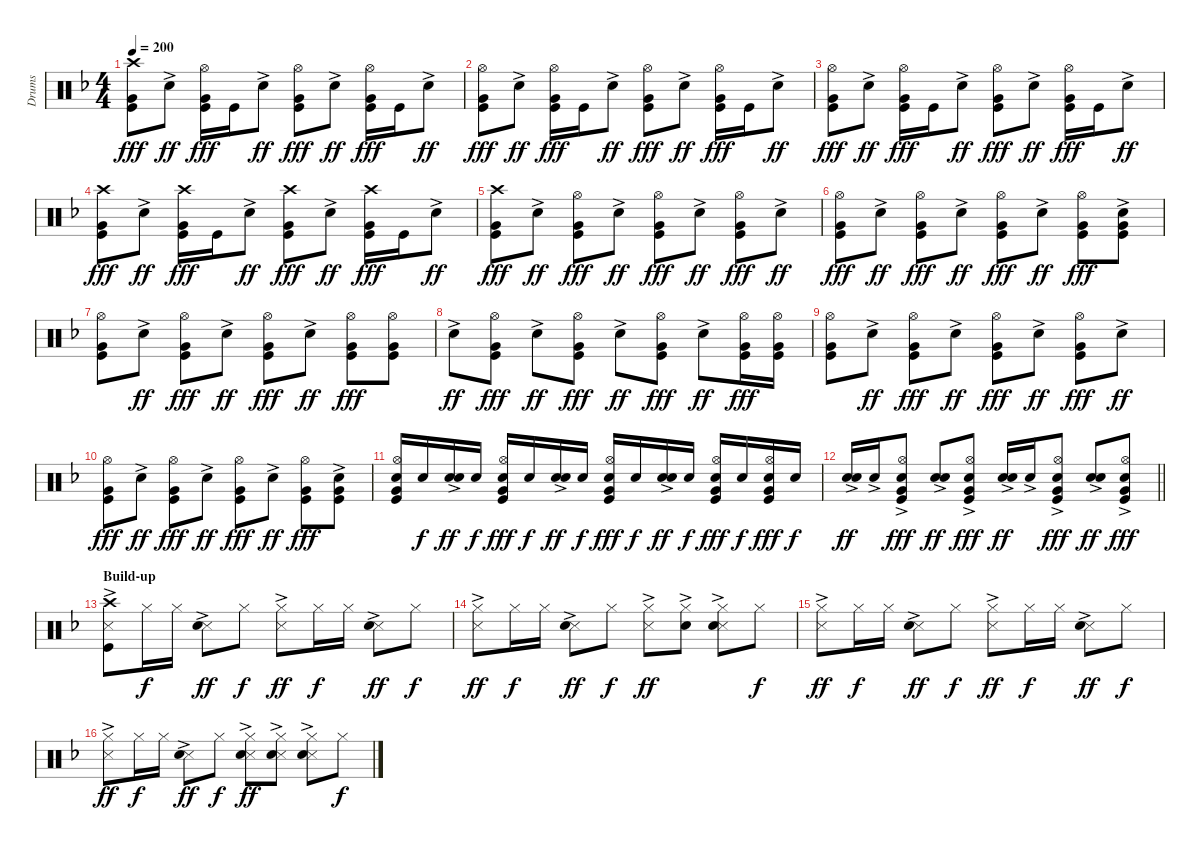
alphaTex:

\track ("Drums" "Drums") {instrument percussion bank 25}
\staff {score}
\articulation defaults
\ts (4 4)
\tempo 200
\clef neutral
\ks dminor
("Crash high (hit)" "Very Low Tom (hit)" "Kick (hit)").8{dy fff} "Snare (hit) 2"{ac}.8{dy ff} ("Hi-Hat (open)" "Very Low Tom (hit)" "Kick (hit)").16{dy fff} "Kick (hit)".16 "Snare (hit) 2"{ac}.8{dy ff} ("Hi-Hat (open)" "Very Low Tom (hit)" "Kick (hit)").8{dy fff} "Snare (hit) 2"{ac}.8{dy ff} ("Hi-Hat (open)" "Very Low Tom (hit)" "Kick (hit)").16{dy fff} "Kick (hit)".16 "Snare (hit) 2"{ac}.8{dy ff} |
("Hi-Hat (open)" "Very Low Tom (hit)" "Kick (hit)").8{dy fff} "Snare (hit) 2"{ac}.8{dy ff} ("Hi-Hat (open)" "Very Low Tom (hit)" "Kick (hit)").16{dy fff} "Kick (hit)".16 "Snare (hit) 2"{ac}.8{dy ff} ("Hi-Hat (open)" "Very Low Tom (hit)" "Kick (hit)").8{dy fff} "Snare (hit) 2"{ac}.8{dy ff} ("Hi-Hat (open)" "Very Low Tom (hit)" "Kick (hit)").16{dy fff} "Kick (hit)".16 "Snare (hit) 2"{ac}.8{dy ff} |
("Hi-Hat (open)" "Very Low Tom (hit)" "Kick (hit)").8{dy fff} "Snare (hit) 2"{ac}.8{dy ff} ("Hi-Hat (open)" "Very Low Tom (hit)" "Kick (hit)").16{dy fff} "Kick (hit)".16 "Snare (hit) 2"{ac}.8{dy ff} ("Hi-Hat (open)" "Very Low Tom (hit)" "Kick (hit)").8{dy fff} "Snare (hit) 2"{ac}.8{dy ff} ("Hi-Hat (open)" "Very Low Tom (hit)" "Kick (hit)").16{dy fff} "Kick (hit)".16 "Snare (hit) 2"{ac}.8{dy ff} |
("Crash high (hit)" "Very Low Tom (hit)" "Kick (hit)").8{dy fff} "Snare (hit) 2"{ac}.8{dy ff} ("Crash high (hit)" "Very Low Tom (hit)" "Kick (hit)").16{dy fff} "Kick (hit)".16 "Snare (hit) 2"{ac}.8{dy ff} ("Crash high (hit)" "Very Low Tom (hit)" "Kick (hit)").8{dy fff} "Snare (hit) 2"{ac}.8{dy ff} ("Crash high (hit)" "Very Low Tom (hit)" "Kick (hit)").16{dy fff} "Kick (hit)".16 "Snare (hit) 2"{ac}.8{dy ff} |
("Crash high (hit)" "Very Low Tom (hit)" "Kick (hit)").8{dy fff} "Snare (hit) 2"{ac}.8{dy ff} ("Hi-Hat (open)" "Very Low Tom (hit)" "Kick (hit)").8{dy fff} "Snare (hit) 2"{ac}.8{dy ff} ("Hi-Hat (open)" "Very Low Tom (hit)" "Kick (hit)").8{dy fff} "Snare (hit) 2"{ac}.8{dy ff} ("Hi-Hat (open)" "Very Low Tom (hit)" "Kick (hit)").8{dy fff} "Snare (hit) 2"{ac}.8{dy ff} |
("Hi-Hat (open)" "Very Low Tom (hit)" "Kick (hit)").8{dy fff} "Snare (hit) 2"{ac}.8{dy ff} ("Hi-Hat (open)" "Very Low Tom (hit)" "Kick (hit)").8{dy fff} "Snare (hit) 2"{ac}.8{dy ff} ("Hi-Hat (open)" "Very Low Tom (hit)" "Kick (hit)").8{dy fff} "Snare (hit) 2"{ac}.8{dy ff} ("Hi-Hat (open)" "Very Low Tom (hit)" "Kick (hit)").8{dy fff} ("Snare (hit) 2"{ac} "Very Low Tom (hit)" "Kick (hit)").8 |
("Hi-Hat (open)" "Very Low Tom (hit)" "Kick (hit)").8 "Snare (hit) 2"{ac}.8{dy ff} ("Hi-Hat (open)" "Very Low Tom (hit)" "Kick (hit)").8{dy fff} "Snare (hit) 2"{ac}.8{dy ff} ("Hi-Hat (open)" "Very Low Tom (hit)" "Kick (hit)").8{dy fff} "Snare (hit) 2"{ac}.8{dy ff} ("Hi-Hat (open)" "Very Low Tom (hit)" "Kick (hit)").8{dy fff} ("Hi-Hat (open)" "Very Low Tom (hit)" "Kick (hit)").8 |
"Snare (hit) 2"{ac}.8{dy ff} ("Hi-Hat (open)" "Very Low Tom (hit)" "Kick (hit)").8{dy fff} "Snare (hit) 2"{ac}.8{dy ff} ("Hi-Hat (open)" "Very Low Tom (hit)" "Kick (hit)").8{dy fff} "Snare (hit) 2"{ac}.8{dy ff} ("Hi-Hat (open)" "Very Low Tom (hit)" "Kick (hit)").8{dy fff} "Snare (hit) 2"{ac}.8{dy ff} ("Hi-Hat (open)" "Very Low Tom (hit)" "Kick (hit)").16{dy fff} ("Hi-Hat (open)" "Very Low Tom (hit)" "Kick (hit)").16 |
("Hi-Hat (open)" "Very Low Tom (hit)" "Kick (hit)").8 "Snare (hit) 2"{ac}.8{dy ff} ("Hi-Hat (open)" "Very Low Tom (hit)" "Kick (hit)").8{dy fff} "Snare (hit) 2"{ac}.8{dy ff} ("Hi-Hat (open)" "Very Low Tom (hit)" "Kick (hit)").8{dy fff} "Snare (hit) 2"{ac}.8{dy ff} ("Hi-Hat (open)" "Very Low Tom (hit)" "Kick (hit)").8{dy fff} "Snare (hit) 2"{ac}.8{dy ff} |
("Hi-Hat (open)" "Very Low Tom (hit)" "Kick (hit)").8{dy fff} "Snare (hit) 2"{ac}.8{dy ff} ("Hi-Hat (open)" "Very Low Tom (hit)" "Kick (hit)").8{dy fff} "Snare (hit) 2"{ac}.8{dy ff} ("Hi-Hat (open)" "Very Low Tom (hit)" "Kick (hit)").8{dy fff} "Snare (hit) 2"{ac}.8{dy ff} ("Hi-Hat (open)" "Very Low Tom (hit)" "Kick (hit)").8{dy fff} ("Snare (hit) 2"{ac} "Very Low Tom (hit)" "Kick (hit)").8 |
("Hi-Hat (open)" "Electric Snare (hit)" "Very Low Tom (hit)" "Kick (hit)").16 "Electric Snare (hit)".16{dy f} ("Electric Snare (hit)" "Snare (hit) 2"{ac}).16{dy ff} "Electric Snare (hit)".16{dy f} ("Hi-Hat (open)" "Electric Snare (hit)" "Very Low Tom (hit)" "Kick (hit)").16{dy fff} "Electric Snare (hit)".16{dy f} ("Electric Snare (hit)" "Snare (hit) 2"{ac}).16{dy ff} "Electric Snare (hit)".16{dy f} ("Hi-Hat (open)" "Electric Snare (hit)" "Very Low Tom (hit)" "Kick (hit)").16{dy fff} "Electric Snare (hit)".16{dy f} ("Electric Snare (hit)" "Snare (hit) 2"{ac}).16{dy ff} "Electric Snare (hit)".16{dy f} ("Hi-Hat (open)" "Electric Snare (hit)" "Very Low Tom (hit)" "Kick (hit)").16{dy fff} "Electric Snare (hit)".16{dy f} ("Hi-Hat (open)" "Electric Snare (hit)" "Very Low Tom (hit)" "Kick (hit)").16{dy fff} "Electric Snare (hit)".16{dy f} |
\barLineRight lightlight
("Electric Snare (hit)"{ac} "Snare (hit) 2"{ac}).16{dy ff} "Electric Snare (hit)"{ac}.16 ("Hi-Hat (open)" "Electric Snare (hit)"{ac} "Very Low Tom (hit)" "Kick (hit)").8{dy fff} ("Electric Snare (hit)"{ac} "Snare (hit) 2"{ac}).8{dy ff} ("Hi-Hat (open)" "Electric Snare (hit)"{ac} "Very Low Tom (hit)" "Kick (hit)").8{dy fff} ("Electric Snare (hit)"{ac} "Snare (hit) 2"{ac}).16{dy ff} "Electric Snare (hit)"{ac}.16 ("Hi-Hat (open)" "Electric Snare (hit)"{ac} "Very Low Tom (hit)" "Kick (hit)").8{dy fff} ("Electric Snare (hit)"{ac} "Snare (hit) 2"{ac}).8{dy ff} ("Hi-Hat (open)" "Electric Snare (hit)"{ac} "Very Low Tom (hit)" "Kick (hit)").8{dy fff} |
\section ("" "Build-up")
("Crash high (hit)" "Metronome (hit)"{ac} "Kick (hit)").8 "Hi-Hat (closed)".16{dy f} "Hi-Hat (closed)".16 ("Metronome (hit)"{ac} "Snare (hit) 2"{ac}).8{dy ff} "Hi-Hat (closed)".8{dy f} ("Hi-Hat (closed)" "Metronome (hit)"{ac}).8{dy ff} "Hi-Hat (closed)".16{dy f} "Hi-Hat (closed)".16 ("Metronome (hit)"{ac} "Snare (hit) 2"{ac}).8{dy ff} "Hi-Hat (closed)".8{dy f} |
("Hi-Hat (closed)" "Metronome (hit)"{ac}).8{dy ff} "Hi-Hat (closed)".16{dy f} "Hi-Hat (closed)".16 ("Metronome (hit)"{ac} "Snare (hit) 2"{ac}).8{dy ff} "Hi-Hat (closed)".8{dy f} ("Hi-Hat (closed)" "Metronome (hit)"{ac}).8{dy ff} ("Hi-Hat (closed)" "Snare (hit) 2"{ac}).8 ("Hi-Hat (closed)" "Metronome (hit)"{ac} "Snare (hit) 2"{ac}).8 "Hi-Hat (closed)".8{dy f} |
("Hi-Hat (closed)" "Metronome (hit)"{ac}).8{dy ff} "Hi-Hat (closed)".16{dy f} "Hi-Hat (closed)".16 ("Metronome (hit)"{ac} "Snare (hit) 2"{ac}).8{dy ff} "Hi-Hat (closed)".8{dy f} ("Hi-Hat (closed)" "Metronome (hit)"{ac}).8{dy ff} "Hi-Hat (closed)".16{dy f} "Hi-Hat (closed)".16 ("Metronome (hit)"{ac} "Snare (hit) 2"{ac}).8{dy ff} "Hi-Hat (closed)".8{dy f} |
("Hi-Hat (closed)" "Metronome (hit)"{ac}).8{dy ff} "Hi-Hat (closed)".16{dy f} "Hi-Hat (closed)".16 ("Metronome (hit)"{ac} "Snare (hit) 2"{ac}).8{dy ff} "Hi-Hat (closed)".8{dy f} ("Hi-Hat (closed)" "Metronome (hit)"{ac} "Snare (hit) 2"{ac}).8{dy ff} ("Hi-Hat (closed)" "Metronome (hit)"{ac} "Snare (hit) 2"{ac}).8 ("Hi-Hat (closed)" "Metronome (hit)"{ac} "Snare (hit) 2"{ac}).8 "Hi-Hat (closed)".8{dy f}
